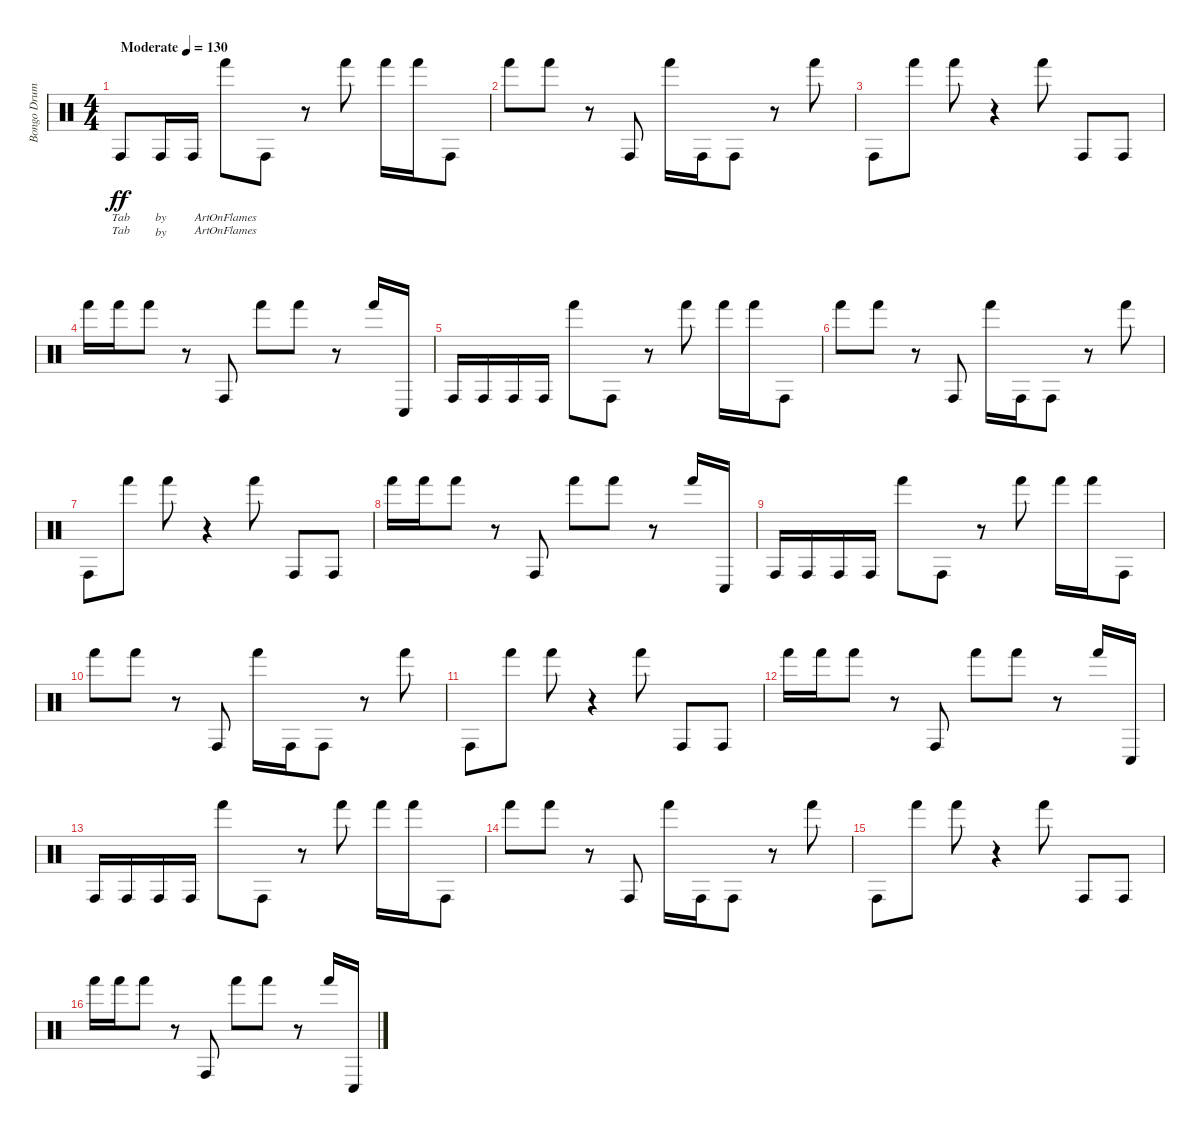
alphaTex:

\track ("Bongo Drums" "Bongo Drum") {instrument percussion}
\staff {score}
\articulation defaults
\ts (4 4)
\tempo (130 "Moderate")
\clef neutral
\ks c "Conga high (hit)".8{lyrics (0 "Tab") lyrics (1 "Tab") lyrics (2 "") lyrics (3 "") lyrics (4 "") dy ff} "Conga high (hit)".16{lyrics (0 "by") lyrics (1 "by") lyrics (2 "") lyrics (3 "") lyrics (4 "")} "Conga high (hit)".16{lyrics (0 "") lyrics (1 "") lyrics (2 "") lyrics (3 "") lyrics (4 "")} "Hand (hit)".8{lyrics (0 "ArtOnFlames") lyrics (1 "ArtOnFlames") lyrics (2 "") lyrics (3 "") lyrics (4 "")} "Conga high (hit)".8
r.8 "Hand (hit)".8 "Hand (hit)".16 "Hand (hit)".16 "Conga high (hit)".8 |
"Hand (hit)".8 "Hand (hit)".8 r.8 "Conga high (hit)".8 "Hand (hit)".16 "Conga high (hit)".16 "Conga high (hit)".8 r.8 "Hand (hit)".8 |
"Conga high (hit)".8 "Hand (hit)".8 "Hand (hit)".8 r.4 "Hand (hit)".8 "Conga high (hit)".8 "Conga high (hit)".8 |
"Hand (hit)".16 "Hand (hit)".16 "Hand (hit)".8 r.8 "Conga high (hit)".8 "Hand (hit)".8 "Hand (hit)".8 r.8 "Hand (hit)".16 "Conga low (hit)".16 |
"Conga high (hit)".16 "Conga high (hit)".16 "Conga high (hit)".16 "Conga high (hit)".16 "Hand (hit)".8 "Conga high (hit)".8 r.8 "Hand (hit)".8 "Hand (hit)".16 "Hand (hit)".16 "Conga high (hit)".8 |
"Hand (hit)".8 "Hand (hit)".8 r.8 "Conga high (hit)".8 "Hand (hit)".16 "Conga high (hit)".16 "Conga high (hit)".8 r.8 "Hand (hit)".8 |
"Conga high (hit)".8 "Hand (hit)".8 "Hand (hit)".8 r.4 "Hand (hit)".8 "Conga high (hit)".8 "Conga high (hit)".8 |
"Hand (hit)".16 "Hand (hit)".16 "Hand (hit)".8 r.8 "Conga high (hit)".8 "Hand (hit)".8 "Hand (hit)".8 r.8 "Hand (hit)".16 "Conga low (hit)".16 |
"Conga high (hit)".16 "Conga high (hit)".16 "Conga high (hit)".16 "Conga high (hit)".16 "Hand (hit)".8 "Conga high (hit)".8 r.8 "Hand (hit)".8 "Hand (hit)".16 "Hand (hit)".16 "Conga high (hit)".8 |
"Hand (hit)".8 "Hand (hit)".8 r.8 "Conga high (hit)".8 "Hand (hit)".16 "Conga high (hit)".16 "Conga high (hit)".8 r.8 "Hand (hit)".8 |
"Conga high (hit)".8 "Hand (hit)".8 "Hand (hit)".8 r.4 "Hand (hit)".8 "Conga high (hit)".8 "Conga high (hit)".8 |
"Hand (hit)".16 "Hand (hit)".16 "Hand (hit)".8 r.8 "Conga high (hit)".8 "Hand (hit)".8 "Hand (hit)".8 r.8 "Hand (hit)".16 "Conga low (hit)".16 |
"Conga high (hit)".16 "Conga high (hit)".16 "Conga high (hit)".16 "Conga high (hit)".16 "Hand (hit)".8 "Conga high (hit)".8 r.8 "Hand (hit)".8 "Hand (hit)".16 "Hand (hit)".16 "Conga high (hit)".8 |
"Hand (hit)".8 "Hand (hit)".8 r.8 "Conga high (hit)".8 "Hand (hit)".16 "Conga high (hit)".16 "Conga high (hit)".8 r.8 "Hand (hit)".8 |
"Conga high (hit)".8 "Hand (hit)".8 "Hand (hit)".8 r.4 "Hand (hit)".8 "Conga high (hit)".8 "Conga high (hit)".8 |
"Hand (hit)".16 "Hand (hit)".16 "Hand (hit)".8 r.8 "Conga high (hit)".8 "Hand (hit)".8 "Hand (hit)".8 r.8 "Hand (hit)".16 "Conga low (hit)".16
